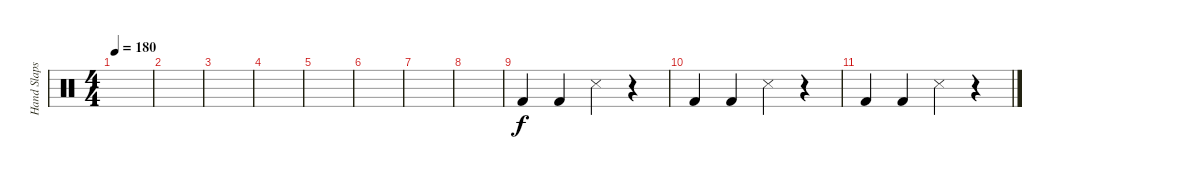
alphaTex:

\track ("Hand Slaps on guitar" "Hand Slaps") {instrument percussion}
\staff {score}
\articulation defaults
\ts (4 4)
\tempo 180
\clef neutral
\ks c
|
|
|
|
|
|
|
|
"Kick (hit) 2".4 "Kick (hit) 2".4 "Metronome (hit)".4 r.4 |
"Kick (hit) 2".4 "Kick (hit) 2".4 "Metronome (hit)".4 r.4 |
"Kick (hit) 2".4 "Kick (hit) 2".4 "Metronome (hit)".4 r.4
